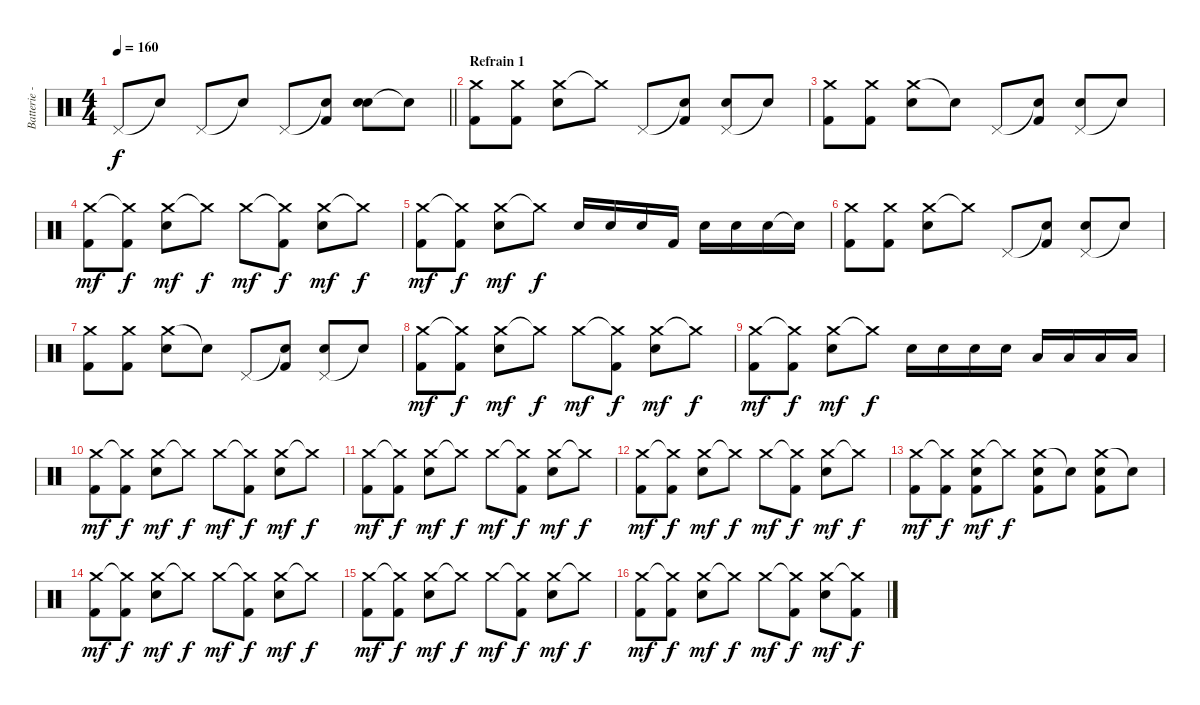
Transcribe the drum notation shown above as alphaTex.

\track ("Batterie - Mikko" "Batterie -") {instrument percussion}
\staff {score}
\articulation defaults
\ts (4 4)
\tempo 160
\clef neutral
\barLineRight lightlight
\ks c "Pedal Hi-Hat (hit)".8{dy f} "Snare (hit)"{t}.8 "Pedal Hi-Hat (hit)".8 "Snare (hit)"{t}.8 "Pedal Hi-Hat (hit)".8
("Snare (hit)"{t} "Kick (hit) 2").8 ("Snare (hit) 2" "Electric Snare (hit)").8 "Snare (hit) 2"{t}.8 |
\section ("" "Refrain 1")
("Crash medium (hit)" "Kick (hit) 2").8 ("Crash medium (hit)" "Kick (hit) 2").8 ("Crash medium (hit)" "Snare (hit) 2").8 "Crash medium (hit)"{t}.8 "Pedal Hi-Hat (hit)".8 ("Snare (hit)"{t} "Kick (hit) 2").8 ("Pedal Hi-Hat (hit)" "Snare (hit) 2").8 "Snare (hit)"{t}.8 |
("Crash medium (hit)" "Kick (hit) 2").8 ("Crash medium (hit)" "Kick (hit) 2").8 ("Crash medium (hit)" "Snare (hit) 2").8 "Snare (hit)"{t}.8 "Pedal Hi-Hat (hit)".8 ("Snare (hit)"{t} "Kick (hit) 2").8 ("Pedal Hi-Hat (hit)" "Snare (hit) 2").8 "Snare (hit)"{t}.8 |
("Crash medium (hit)" "Kick (hit) 2").8{dy mf} ("Crash medium (hit)"{t} "Kick (hit) 2").8{dy f} ("Crash medium (hit)" "Snare (hit) 2").8{dy mf} "Crash medium (hit)"{t}.8{dy f} "Crash medium (hit)".8{dy mf} ("Crash medium (hit)"{t} "Kick (hit) 2").8{dy f} ("Crash medium (hit)" "Snare (hit) 2").8{dy mf} "Crash medium (hit)"{t}.8{dy f} |
("Crash medium (hit)" "Kick (hit) 2").8{dy mf} ("Crash medium (hit)"{t} "Kick (hit) 2").8{dy f} ("Crash medium (hit)" "Snare (hit) 2").8{dy mf} "Crash medium (hit)"{t}.8{dy f} "Snare (hit) 2".16 "Snare (hit) 2".16 "Snare (hit) 2".16 "Kick (hit) 2".16 "Snare (hit) 2".16 "Snare (hit) 2".16 "Snare (hit) 2".16 "Snare (hit)"{t}.16 |
("Crash medium (hit)" "Kick (hit) 2").8 ("Crash medium (hit)" "Kick (hit) 2").8 ("Crash medium (hit)" "Snare (hit) 2").8 "Crash medium (hit)"{t}.8 "Pedal Hi-Hat (hit)".8 ("Snare (hit)"{t} "Kick (hit) 2").8 ("Pedal Hi-Hat (hit)" "Snare (hit) 2").8 "Snare (hit)"{t}.8 |
("Crash medium (hit)" "Kick (hit) 2").8 ("Crash medium (hit)" "Kick (hit) 2").8 ("Crash medium (hit)" "Snare (hit) 2").8 "Snare (hit)"{t}.8 "Pedal Hi-Hat (hit)".8 ("Snare (hit)"{t} "Kick (hit) 2").8 ("Pedal Hi-Hat (hit)" "Snare (hit) 2").8 "Snare (hit)"{t}.8 |
("Crash medium (hit)" "Kick (hit) 2").8{dy mf} ("Crash medium (hit)"{t} "Kick (hit) 2").8{dy f} ("Crash medium (hit)" "Snare (hit) 2").8{dy mf} "Crash medium (hit)"{t}.8{dy f} "Crash medium (hit)".8{dy mf} ("Crash medium (hit)"{t} "Kick (hit) 2").8{dy f} ("Crash medium (hit)" "Snare (hit) 2").8{dy mf} "Crash medium (hit)"{t}.8{dy f} |
("Crash medium (hit)" "Kick (hit) 2").8{dy mf} ("Crash medium (hit)"{t} "Kick (hit) 2").8{dy f} ("Crash medium (hit)" "Snare (hit) 2").8{dy mf} "Crash medium (hit)"{t}.8{dy f} "Snare (hit) 2".16 "Snare (hit) 2".16 "Snare (hit) 2".16 "Snare (hit) 2".16 "Low Tom (hit)".16 "Low Tom (hit)".16 "Low Tom (hit)".16 "Low Tom (hit)".16 |
("Crash medium (hit)" "Kick (hit) 2").8{dy mf} ("Crash medium (hit)"{t} "Kick (hit) 2").8{dy f} ("Crash medium (hit)" "Snare (hit) 2").8{dy mf} "Crash medium (hit)"{t}.8{dy f} "Crash medium (hit)".8{dy mf} ("Crash medium (hit)"{t} "Kick (hit) 2").8{dy f} ("Crash medium (hit)" "Snare (hit) 2").8{dy mf} "Crash medium (hit)"{t}.8{dy f} |
("Crash medium (hit)" "Kick (hit) 2").8{dy mf} ("Crash medium (hit)"{t} "Kick (hit) 2").8{dy f} ("Crash medium (hit)" "Snare (hit) 2").8{dy mf} "Crash medium (hit)"{t}.8{dy f} "Crash medium (hit)".8{dy mf} ("Crash medium (hit)"{t} "Kick (hit) 2").8{dy f} ("Crash medium (hit)" "Snare (hit) 2").8{dy mf} "Crash medium (hit)"{t}.8{dy f} |
("Crash medium (hit)" "Kick (hit) 2").8{dy mf} ("Crash medium (hit)"{t} "Kick (hit) 2").8{dy f} ("Crash medium (hit)" "Snare (hit) 2").8{dy mf} "Crash medium (hit)"{t}.8{dy f} "Crash medium (hit)".8{dy mf} ("Crash medium (hit)"{t} "Kick (hit) 2").8{dy f} ("Crash medium (hit)" "Snare (hit) 2").8{dy mf} "Crash medium (hit)"{t}.8{dy f} |
("Crash medium (hit)" "Kick (hit) 2").8{dy mf} ("Crash medium (hit)"{t} "Kick (hit) 2").8{dy f} ("Crash medium (hit)" "Snare (hit) 2" "Kick (hit) 2").8{dy mf} "Crash medium (hit)"{t}.8{dy f} ("Crash medium (hit)" "Snare (hit) 2" "Kick (hit) 2").8 "Snare (hit)"{t}.8 ("Crash medium (hit)" "Snare (hit) 2" "Kick (hit) 2").8 "Snare (hit)"{t}.8 |
("Crash medium (hit)" "Kick (hit) 2").8{dy mf} ("Crash medium (hit)"{t} "Kick (hit) 2").8{dy f} ("Crash medium (hit)" "Snare (hit) 2").8{dy mf} "Crash medium (hit)"{t}.8{dy f} "Crash medium (hit)".8{dy mf} ("Crash medium (hit)"{t} "Kick (hit) 2").8{dy f} ("Crash medium (hit)" "Snare (hit) 2").8{dy mf} "Crash medium (hit)"{t}.8{dy f} |
("Crash medium (hit)" "Kick (hit) 2").8{dy mf} ("Crash medium (hit)"{t} "Kick (hit) 2").8{dy f} ("Crash medium (hit)" "Snare (hit) 2").8{dy mf} "Crash medium (hit)"{t}.8{dy f} "Crash medium (hit)".8{dy mf} ("Crash medium (hit)"{t} "Kick (hit) 2").8{dy f} ("Crash medium (hit)" "Snare (hit) 2").8{dy mf} "Crash medium (hit)"{t}.8{dy f} |
("Crash medium (hit)" "Kick (hit) 2").8{dy mf} ("Crash medium (hit)"{t} "Kick (hit) 2").8{dy f} ("Crash medium (hit)" "Snare (hit) 2").8{dy mf} "Crash medium (hit)"{t}.8{dy f} "Crash medium (hit)".8{dy mf} ("Crash medium (hit)"{t} "Kick (hit) 2").8{dy f} ("Crash medium (hit)" "Snare (hit) 2").8{dy mf} ("Crash medium (hit)"{t} "Kick (hit) 2").8{dy f}
